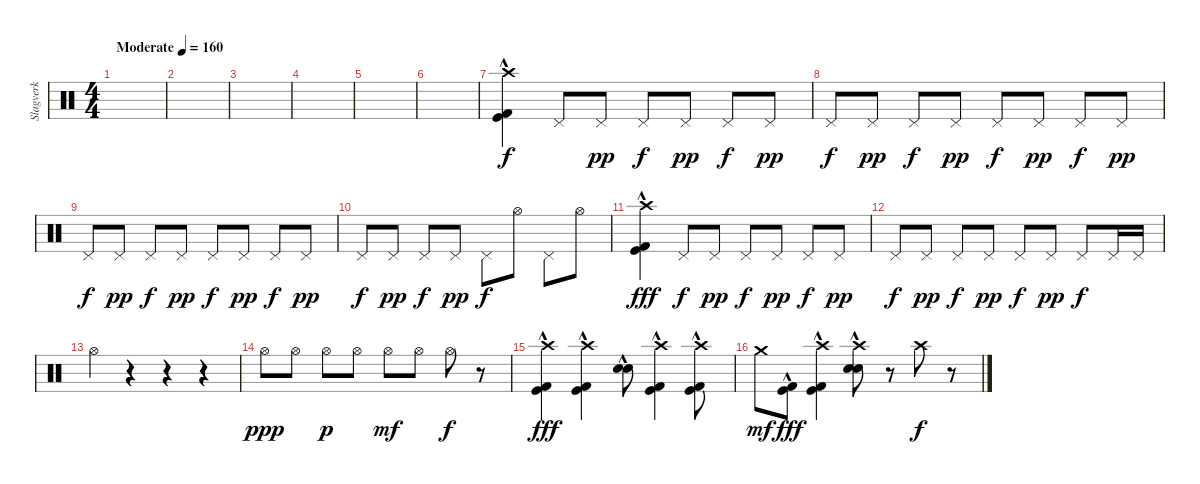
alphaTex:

\track ("Slagverk" "Slagverk") {instrument percussion}
\staff {score}
\articulation defaults
\ts (4 4)
\tempo (160 "Moderate")
\clef neutral
\ks c
|
|
|
|
|
|
("Crash high (hit)" "Kick (hit)"{hac} "Kick (hit) 2"{hac}).4 "Pedal Hi-Hat (hit)".8{dy f} "Pedal Hi-Hat (hit)".8{dy pp} "Pedal Hi-Hat (hit)".8{dy f} "Pedal Hi-Hat (hit)".8{dy pp} "Pedal Hi-Hat (hit)".8{dy f} "Pedal Hi-Hat (hit)".8{dy pp} |
"Pedal Hi-Hat (hit)".8{dy f} "Pedal Hi-Hat (hit)".8{dy pp} "Pedal Hi-Hat (hit)".8{dy f} "Pedal Hi-Hat (hit)".8{dy pp} "Pedal Hi-Hat (hit)".8{dy f} "Pedal Hi-Hat (hit)".8{dy pp} "Pedal Hi-Hat (hit)".8{dy f} "Pedal Hi-Hat (hit)".8{dy pp} |
"Pedal Hi-Hat (hit)".8{dy f} "Pedal Hi-Hat (hit)".8{dy pp} "Pedal Hi-Hat (hit)".8{dy f} "Pedal Hi-Hat (hit)".8{dy pp} "Pedal Hi-Hat (hit)".8{dy f} "Pedal Hi-Hat (hit)".8{dy pp} "Pedal Hi-Hat (hit)".8{dy f} "Pedal Hi-Hat (hit)".8{dy pp} |
"Pedal Hi-Hat (hit)".8{dy f} "Pedal Hi-Hat (hit)".8{dy pp} "Pedal Hi-Hat (hit)".8{dy f} "Pedal Hi-Hat (hit)".8{dy pp} "Pedal Hi-Hat (hit)".8{dy f} "Hi-Hat (open)".8 "Pedal Hi-Hat (hit)".8 "Hi-Hat (open)".8 |
("Crash high (hit)" "Kick (hit)"{hac} "Kick (hit) 2"{hac}).4{dy fff} "Pedal Hi-Hat (hit)".8{dy f} "Pedal Hi-Hat (hit)".8{dy pp} "Pedal Hi-Hat (hit)".8{dy f} "Pedal Hi-Hat (hit)".8{dy pp} "Pedal Hi-Hat (hit)".8{dy f} "Pedal Hi-Hat (hit)".8{dy pp} |
"Pedal Hi-Hat (hit)".8{dy f} "Pedal Hi-Hat (hit)".8{dy pp} "Pedal Hi-Hat (hit)".8{dy f} "Pedal Hi-Hat (hit)".8{dy pp} "Pedal Hi-Hat (hit)".8{dy f} "Pedal Hi-Hat (hit)".8{dy pp} "Pedal Hi-Hat (hit)".8{dy f} "Pedal Hi-Hat (hit)".16 "Pedal Hi-Hat (hit)".16 |
"Hi-Hat (open)".4 r.4 r.4 r.4 |
"Hi-Hat (open)".8{dy ppp} "Hi-Hat (open)".8 "Hi-Hat (open)".8{dy p} "Hi-Hat (open)".8 "Hi-Hat (open)".8{dy mf} "Hi-Hat (open)".8 "Hi-Hat (open)".8{dy f} r.8 |
("Crash high (hit)" "Kick (hit)"{hac} "Kick (hit) 2"{hac}).4{dy fff} ("Crash high (hit)" "Kick (hit)"{hac} "Kick (hit) 2"{hac}).4 ("Electric Snare (hit)"{hac} "Snare (hit) 2"{hac}).8 ("Crash high (hit)" "Kick (hit)"{hac} "Kick (hit) 2"{hac}).4 ("Crash high (hit)" "Kick (hit)"{hac} "Kick (hit) 2"{hac}).8 |
"Crash medium (hit)".8{dy mf} ("Kick (hit)"{hac} "Kick (hit) 2"{hac}).8{dy fff} ("Crash high (hit)" "Kick (hit)"{hac} "Kick (hit) 2"{hac}).4 ("Crash high (hit)" "Electric Snare (hit)"{hac} "Snare (hit) 2"{hac}).8 r.8 "Crash high (hit)".8{dy f} r.8
